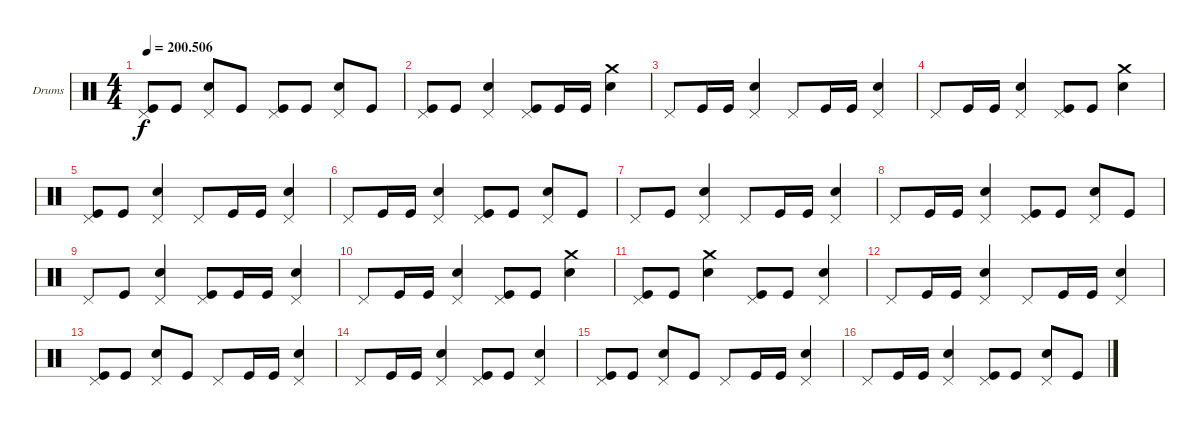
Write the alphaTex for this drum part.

\bracketExtendMode groupsimilarinstruments
\firstSystemTrackNameOrientation horizontal
\otherSystemsTrackNameOrientation horizontal
\track ("Drums" "Drums") {instrument percussion}
\staff {score}
\articulation defaults
\ts (4 4)
\tempo
200.506
\accidentals auto
\clef neutral
\ottava regular
\simile none
\ks c
("Pedal Hi-Hat (hit)" "Kick (hit)").8{dy f} "Kick (hit)".8 ("Pedal Hi-Hat (hit)" "Snare (hit) 2").8 "Kick (hit)".8 ("Pedal Hi-Hat (hit)" "Kick (hit)").8 "Kick (hit)".8 ("Pedal Hi-Hat (hit)" "Snare (hit) 2").8 "Kick (hit)".8 |
("Pedal Hi-Hat (hit)" "Kick (hit)").8 "Kick (hit)".8 ("Pedal Hi-Hat (hit)" "Snare (hit) 2").4 ("Pedal Hi-Hat (hit)" "Kick (hit)").8 "Kick (hit)".16 "Kick (hit)".16 ("Crash medium (hit)" "Snare (hit) 2").4 |
"Pedal Hi-Hat (hit)".8 "Kick (hit)".16 "Kick (hit)".16 ("Pedal Hi-Hat (hit)" "Snare (hit) 2").4 "Pedal Hi-Hat (hit)".8 "Kick (hit)".16 "Kick (hit)".16 ("Pedal Hi-Hat (hit)" "Snare (hit) 2").4 |
"Pedal Hi-Hat (hit)".8 "Kick (hit)".16 "Kick (hit)".16 ("Pedal Hi-Hat (hit)" "Snare (hit) 2").4 ("Pedal Hi-Hat (hit)" "Kick (hit)").8 "Kick (hit)".8 ("Snare (hit) 2" "Crash medium (hit)").4 |
("Pedal Hi-Hat (hit)" "Kick (hit)").8 "Kick (hit)".8 ("Pedal Hi-Hat (hit)" "Snare (hit) 2").4 "Pedal Hi-Hat (hit)".8 "Kick (hit)".16 "Kick (hit)".16 ("Pedal Hi-Hat (hit)" "Snare (hit) 2").4 |
"Pedal Hi-Hat (hit)".8 "Kick (hit)".16 "Kick (hit)".16 ("Pedal Hi-Hat (hit)" "Snare (hit) 2").4 ("Pedal Hi-Hat (hit)" "Kick (hit)").8 "Kick (hit)".8 ("Pedal Hi-Hat (hit)" "Snare (hit) 2").8 "Kick (hit)".8 |
"Pedal Hi-Hat (hit)".8 "Kick (hit)".8 ("Pedal Hi-Hat (hit)" "Snare (hit) 2").4 "Pedal Hi-Hat (hit)".8 "Kick (hit)".16 "Kick (hit)".16 ("Pedal Hi-Hat (hit)" "Snare (hit) 2").4 |
"Pedal Hi-Hat (hit)".8 "Kick (hit)".16 "Kick (hit)".16 ("Pedal Hi-Hat (hit)" "Snare (hit) 2").4 ("Pedal Hi-Hat (hit)" "Kick (hit)").8 "Kick (hit)".8 ("Pedal Hi-Hat (hit)" "Snare (hit) 2").8 "Kick (hit)".8 |
"Pedal Hi-Hat (hit)".8 "Kick (hit)".8 ("Pedal Hi-Hat (hit)" "Snare (hit) 2").4 ("Pedal Hi-Hat (hit)" "Kick (hit)").8 "Kick (hit)".16 "Kick (hit)".16 ("Pedal Hi-Hat (hit)" "Snare (hit) 2").4 |
"Pedal Hi-Hat (hit)".8 "Kick (hit)".16 "Kick (hit)".16 ("Pedal Hi-Hat (hit)" "Snare (hit) 2").4 ("Pedal Hi-Hat (hit)" "Kick (hit)").8 "Kick (hit)".8 ("Snare (hit) 2" "Crash medium (hit)").4 |
("Pedal Hi-Hat (hit)" "Kick (hit)").8 "Kick (hit)".8 ("Crash medium (hit)" "Snare (hit) 2").4 ("Pedal Hi-Hat (hit)" "Kick (hit)").8 "Kick (hit)".8 ("Pedal Hi-Hat (hit)" "Snare (hit) 2").4 |
"Pedal Hi-Hat (hit)".8 "Kick (hit)".16 "Kick (hit)".16 ("Pedal Hi-Hat (hit)" "Snare (hit) 2").4 "Pedal Hi-Hat (hit)".8 "Kick (hit)".16 "Kick (hit)".16 ("Pedal Hi-Hat (hit)" "Snare (hit) 2").4 |
("Pedal Hi-Hat (hit)" "Kick (hit)").8 "Kick (hit)".8 ("Pedal Hi-Hat (hit)" "Snare (hit) 2").8 "Kick (hit)".8 "Pedal Hi-Hat (hit)".8 "Kick (hit)".16 "Kick (hit)".16 ("Pedal Hi-Hat (hit)" "Snare (hit) 2").4 |
"Pedal Hi-Hat (hit)".8 "Kick (hit)".16 "Kick (hit)".16 ("Pedal Hi-Hat (hit)" "Snare (hit) 2").4 ("Pedal Hi-Hat (hit)" "Kick (hit)").8 "Kick (hit)".8 ("Pedal Hi-Hat (hit)" "Snare (hit) 2").4 |
("Pedal Hi-Hat (hit)" "Kick (hit)").8 "Kick (hit)".8 ("Pedal Hi-Hat (hit)" "Snare (hit) 2").8 "Kick (hit)".8 "Pedal Hi-Hat (hit)".8 "Kick (hit)".16 "Kick (hit)".16 ("Pedal Hi-Hat (hit)" "Snare (hit) 2").4 |
"Pedal Hi-Hat (hit)".8 "Kick (hit)".16 "Kick (hit)".16 ("Pedal Hi-Hat (hit)" "Snare (hit) 2").4 ("Pedal Hi-Hat (hit)" "Kick (hit)").8 "Kick (hit)".8 ("Pedal Hi-Hat (hit)" "Snare (hit) 2").8 "Kick (hit)".8
